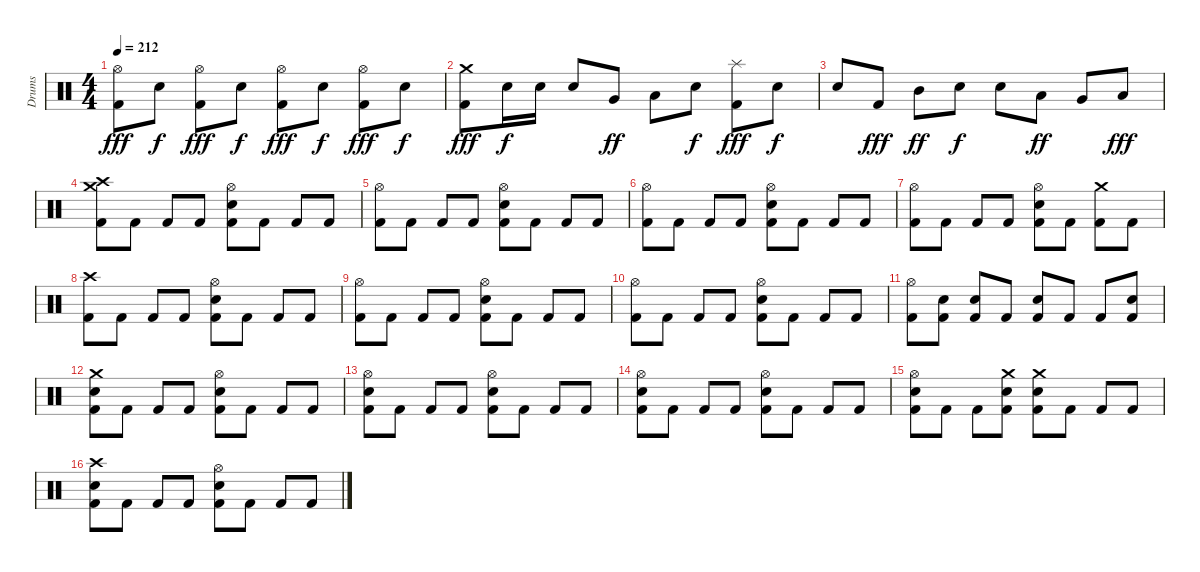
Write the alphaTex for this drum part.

\track ("Drums" "Drums") {instrument percussion}
\staff {score}
\articulation defaults
\ts (4 4)
\tempo 212
\clef neutral
\ks c
("Hi-Hat (open)" "Kick (hit) 2").8{dy fff} "Snare (hit) 2".8{dy f} ("Hi-Hat (open)" "Kick (hit) 2").8{dy fff} "Snare (hit) 2".8{dy f} ("Hi-Hat (open)" "Kick (hit) 2").8{dy fff} "Snare (hit) 2".8{dy f} ("Hi-Hat (open)" "Kick (hit) 2").8{dy fff} "Snare (hit) 2".8{dy f} |
("Crash medium (hit)" "Kick (hit) 2").8{dy fff} "Snare (hit) 2".16{dy f} "Snare (hit) 2".16 "Snare (hit) 2".8 "Very Low Tom (hit)".8{dy ff} "Low Floor Tom (hit)".8 "Snare (hit) 2".8{dy f} ("Splash (hit)" "Kick (hit) 2").8{dy fff} "Snare (hit) 2".8{dy f} |
"Snare (hit) 2".8 "Kick (hit) 2".8{dy fff} "Mid Tom (hit)".8{dy ff} "Snare (hit) 2".8{dy f} "Snare (hit) 2".8 "Low Tom (hit)".8{dy ff} "Very Low Tom (hit)".8 "Low Floor Tom (hit)".8{dy fff} |
("Crash medium (hit)" "Crash high (hit)" "Kick (hit) 2").8 "Kick (hit) 2".8 "Kick (hit) 2".8 "Kick (hit) 2".8 ("Hi-Hat (open)" "Snare (hit) 2" "Kick (hit) 2").8 "Kick (hit) 2".8 "Kick (hit) 2".8 "Kick (hit) 2".8 |
("Hi-Hat (open)" "Kick (hit) 2").8 "Kick (hit) 2".8 "Kick (hit) 2".8 "Kick (hit) 2".8 ("Hi-Hat (open)" "Snare (hit) 2" "Kick (hit) 2").8 "Kick (hit) 2".8 "Kick (hit) 2".8 "Kick (hit) 2".8 |
("Hi-Hat (open)" "Kick (hit) 2").8 "Kick (hit) 2".8 "Kick (hit) 2".8 "Kick (hit) 2".8 ("Hi-Hat (open)" "Snare (hit) 2" "Kick (hit) 2").8 "Kick (hit) 2".8 "Kick (hit) 2".8 "Kick (hit) 2".8 |
("Hi-Hat (open)" "Kick (hit) 2").8 "Kick (hit) 2".8 "Kick (hit) 2".8 "Kick (hit) 2".8 ("Hi-Hat (open)" "Snare (hit) 2" "Kick (hit) 2").8 "Kick (hit) 2".8 ("Crash medium (hit)" "Kick (hit) 2").8 "Kick (hit) 2".8 |
("Crash high (hit)" "Kick (hit) 2").8 "Kick (hit) 2".8 "Kick (hit) 2".8 "Kick (hit) 2".8 ("Hi-Hat (open)" "Snare (hit) 2" "Kick (hit) 2").8 "Kick (hit) 2".8 "Kick (hit) 2".8 "Kick (hit) 2".8 |
("Hi-Hat (open)" "Kick (hit) 2").8 "Kick (hit) 2".8 "Kick (hit) 2".8 "Kick (hit) 2".8 ("Hi-Hat (open)" "Snare (hit) 2" "Kick (hit) 2").8 "Kick (hit) 2".8 "Kick (hit) 2".8 "Kick (hit) 2".8 |
("Hi-Hat (open)" "Kick (hit) 2").8 "Kick (hit) 2".8 "Kick (hit) 2".8 "Kick (hit) 2".8 ("Hi-Hat (open)" "Snare (hit) 2" "Kick (hit) 2").8 "Kick (hit) 2".8 "Kick (hit) 2".8 "Kick (hit) 2".8 |
("Hi-Hat (open)" "Kick (hit) 2").8 ("Snare (hit) 2" "Kick (hit) 2").8 ("Snare (hit) 2" "Kick (hit) 2").8 "Kick (hit) 2".8 ("Snare (hit) 2" "Kick (hit) 2").8 "Kick (hit) 2".8 "Kick (hit) 2".8 ("Snare (hit) 2" "Kick (hit) 2").8 |
("Crash medium (hit)" "Snare (hit) 2" "Kick (hit) 2").8 "Kick (hit) 2".8 "Kick (hit) 2".8 "Kick (hit) 2".8 ("Hi-Hat (open)" "Snare (hit) 2" "Kick (hit) 2").8 "Kick (hit) 2".8 "Kick (hit) 2".8 "Kick (hit) 2".8 |
("Hi-Hat (open)" "Snare (hit) 2" "Kick (hit) 2").8 "Kick (hit) 2".8 "Kick (hit) 2".8 "Kick (hit) 2".8 ("Hi-Hat (open)" "Snare (hit) 2" "Kick (hit) 2").8 "Kick (hit) 2".8 "Kick (hit) 2".8 "Kick (hit) 2".8 |
("Hi-Hat (open)" "Snare (hit) 2" "Kick (hit) 2").8 "Kick (hit) 2".8 "Kick (hit) 2".8 "Kick (hit) 2".8 ("Hi-Hat (open)" "Snare (hit) 2" "Kick (hit) 2").8 "Kick (hit) 2".8 "Kick (hit) 2".8 "Kick (hit) 2".8 |
("Hi-Hat (open)" "Snare (hit) 2" "Kick (hit) 2").8 "Kick (hit) 2".8 "Kick (hit) 2".8 ("Crash medium (hit)" "Snare (hit) 2" "Kick (hit) 2").8 ("Crash medium (hit)" "Snare (hit) 2" "Kick (hit) 2").8 "Kick (hit) 2".8 "Kick (hit) 2".8 "Kick (hit) 2".8 |
("Crash high (hit)" "Snare (hit) 2" "Kick (hit) 2").8 "Kick (hit) 2".8 "Kick (hit) 2".8 "Kick (hit) 2".8 ("Hi-Hat (open)" "Snare (hit) 2" "Kick (hit) 2").8 "Kick (hit) 2".8 "Kick (hit) 2".8 "Kick (hit) 2".8
